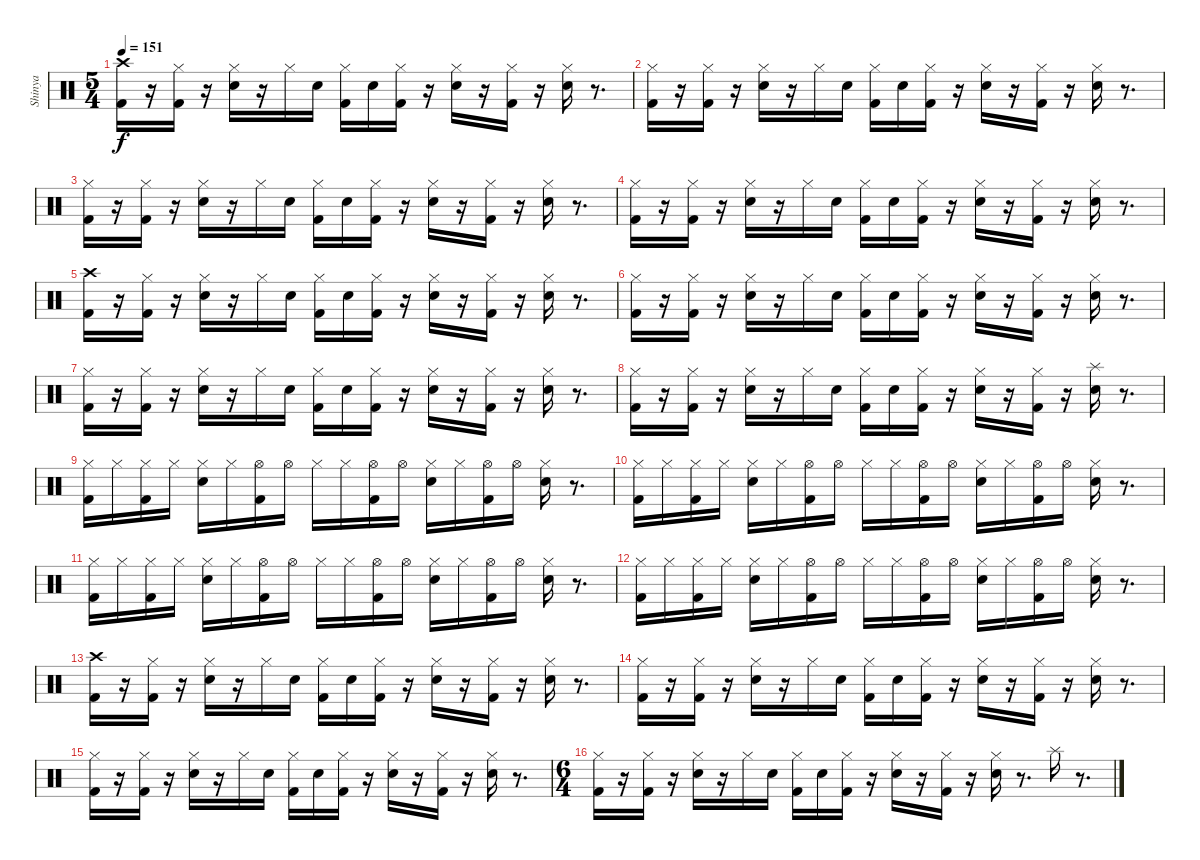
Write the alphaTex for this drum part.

\track ("Shinya" "Shinya") {instrument percussion}
\staff {score}
\articulation defaults
\ts (5 4)
\tempo 151
\clef neutral
\ks c
("Kick (hit) 2" "Crash high (hit)").16{dy f} r.16 ("Kick (hit) 2" "Hi-Hat (closed)").16 r.16 ("Snare (hit) 2" "Hi-Hat (closed)").16 r.16 "Hi-Hat (closed)".16 "Snare (hit) 2".16 ("Hi-Hat (closed)" "Kick (hit) 2").16 "Snare (hit) 2".16 ("Hi-Hat (closed)" "Kick (hit) 2").16 r.16 ("Snare (hit) 2" "Hi-Hat (closed)").16 r.16 ("Kick (hit) 2" "Hi-Hat (closed)").16 r.16 ("Snare (hit) 2" "Hi-Hat (closed)").16 r.8{d} |
("Kick (hit) 2" "Hi-Hat (closed)").16 r.16 ("Kick (hit) 2" "Hi-Hat (closed)").16 r.16 ("Snare (hit) 2" "Hi-Hat (closed)").16 r.16 "Hi-Hat (closed)".16 "Snare (hit) 2".16 ("Hi-Hat (closed)" "Kick (hit) 2").16 "Snare (hit) 2".16 ("Hi-Hat (closed)" "Kick (hit) 2").16 r.16 ("Snare (hit) 2" "Hi-Hat (closed)").16 r.16 ("Kick (hit) 2" "Hi-Hat (closed)").16 r.16 ("Snare (hit) 2" "Hi-Hat (closed)").16 r.8{d} |
("Kick (hit) 2" "Hi-Hat (closed)").16 r.16 ("Kick (hit) 2" "Hi-Hat (closed)").16 r.16 ("Snare (hit) 2" "Hi-Hat (closed)").16 r.16 "Hi-Hat (closed)".16 "Snare (hit) 2".16 ("Hi-Hat (closed)" "Kick (hit) 2").16 "Snare (hit) 2".16 ("Hi-Hat (closed)" "Kick (hit) 2").16 r.16 ("Snare (hit) 2" "Hi-Hat (closed)").16 r.16 ("Kick (hit) 2" "Hi-Hat (closed)").16 r.16 ("Snare (hit) 2" "Hi-Hat (closed)").16 r.8{d} |
("Kick (hit) 2" "Hi-Hat (closed)").16 r.16 ("Kick (hit) 2" "Hi-Hat (closed)").16 r.16 ("Snare (hit) 2" "Hi-Hat (closed)").16 r.16 "Hi-Hat (closed)".16 "Snare (hit) 2".16 ("Hi-Hat (closed)" "Kick (hit) 2").16 "Snare (hit) 2".16 ("Hi-Hat (closed)" "Kick (hit) 2").16 r.16 ("Snare (hit) 2" "Hi-Hat (closed)").16 r.16 ("Kick (hit) 2" "Hi-Hat (closed)").16 r.16 ("Snare (hit) 2" "Hi-Hat (closed)").16 r.8{d} |
("Kick (hit) 2" "Crash high (hit)").16 r.16 ("Kick (hit) 2" "Hi-Hat (closed)").16 r.16 ("Snare (hit) 2" "Hi-Hat (closed)").16 r.16 "Hi-Hat (closed)".16 "Snare (hit) 2".16 ("Hi-Hat (closed)" "Kick (hit) 2").16 "Snare (hit) 2".16 ("Hi-Hat (closed)" "Kick (hit) 2").16 r.16 ("Snare (hit) 2" "Hi-Hat (closed)").16 r.16 ("Kick (hit) 2" "Hi-Hat (closed)").16 r.16 ("Snare (hit) 2" "Hi-Hat (closed)").16 r.8{d} |
("Kick (hit) 2" "Hi-Hat (closed)").16 r.16 ("Kick (hit) 2" "Hi-Hat (closed)").16 r.16 ("Snare (hit) 2" "Hi-Hat (closed)").16 r.16 "Hi-Hat (closed)".16 "Snare (hit) 2".16 ("Hi-Hat (closed)" "Kick (hit) 2").16 "Snare (hit) 2".16 ("Hi-Hat (closed)" "Kick (hit) 2").16 r.16 ("Snare (hit) 2" "Hi-Hat (closed)").16 r.16 ("Kick (hit) 2" "Hi-Hat (closed)").16 r.16 ("Snare (hit) 2" "Hi-Hat (closed)").16 r.8{d} |
("Kick (hit) 2" "Hi-Hat (closed)").16 r.16 ("Kick (hit) 2" "Hi-Hat (closed)").16 r.16 ("Snare (hit) 2" "Hi-Hat (closed)").16 r.16 "Hi-Hat (closed)".16 "Snare (hit) 2".16 ("Hi-Hat (closed)" "Kick (hit) 2").16 "Snare (hit) 2".16 ("Hi-Hat (closed)" "Kick (hit) 2").16 r.16 ("Snare (hit) 2" "Hi-Hat (closed)").16 r.16 ("Kick (hit) 2" "Hi-Hat (closed)").16 r.16 ("Snare (hit) 2" "Hi-Hat (closed)").16 r.8{d} |
("Kick (hit) 2" "Hi-Hat (closed)").16 r.16 ("Kick (hit) 2" "Hi-Hat (closed)").16 r.16 ("Snare (hit) 2" "Hi-Hat (closed)").16 r.16 "Hi-Hat (closed)".16 "Snare (hit) 2".16 ("Hi-Hat (closed)" "Kick (hit) 2").16 "Snare (hit) 2".16 ("Hi-Hat (closed)" "Kick (hit) 2").16 r.16 ("Snare (hit) 2" "Hi-Hat (closed)").16 r.16 ("Kick (hit) 2" "Hi-Hat (closed)").16 r.16 ("Splash (hit)" "Snare (hit) 2").16 r.8{d} |
("Hi-Hat (closed)" "Kick (hit) 2").16 "Hi-Hat (closed)".16 ("Hi-Hat (closed)" "Kick (hit) 2").16 "Hi-Hat (closed)".16 ("Snare (hit) 2" "Hi-Hat (closed)").16 "Hi-Hat (closed)".16 ("Hi-Hat (open)" "Kick (hit) 2").16 "Hi-Hat (open)".16 "Hi-Hat (closed)".16 "Hi-Hat (closed)".16 ("Hi-Hat (open)" "Kick (hit) 2").16 "Hi-Hat (open)".16 ("Snare (hit) 2" "Hi-Hat (closed)").16 "Hi-Hat (closed)".16 ("Hi-Hat (open)" "Kick (hit) 2").16 "Hi-Hat (open)".16 ("Snare (hit) 2" "Hi-Hat (closed)").16 r.8{d} |
("Hi-Hat (closed)" "Kick (hit) 2").16 "Hi-Hat (closed)".16 ("Hi-Hat (closed)" "Kick (hit) 2").16 "Hi-Hat (closed)".16 ("Snare (hit) 2" "Hi-Hat (closed)").16 "Hi-Hat (closed)".16 ("Hi-Hat (open)" "Kick (hit) 2").16 "Hi-Hat (open)".16 "Hi-Hat (closed)".16 "Hi-Hat (closed)".16 ("Hi-Hat (open)" "Kick (hit) 2").16 "Hi-Hat (open)".16 ("Snare (hit) 2" "Hi-Hat (closed)").16 "Hi-Hat (closed)".16 ("Hi-Hat (open)" "Kick (hit) 2").16 "Hi-Hat (open)".16 ("Snare (hit) 2" "Hi-Hat (closed)").16 r.8{d} |
("Hi-Hat (closed)" "Kick (hit) 2").16 "Hi-Hat (closed)".16 ("Hi-Hat (closed)" "Kick (hit) 2").16 "Hi-Hat (closed)".16 ("Snare (hit) 2" "Hi-Hat (closed)").16 "Hi-Hat (closed)".16 ("Hi-Hat (open)" "Kick (hit) 2").16 "Hi-Hat (open)".16 "Hi-Hat (closed)".16 "Hi-Hat (closed)".16 ("Hi-Hat (open)" "Kick (hit) 2").16 "Hi-Hat (open)".16 ("Snare (hit) 2" "Hi-Hat (closed)").16 "Hi-Hat (closed)".16 ("Hi-Hat (open)" "Kick (hit) 2").16 "Hi-Hat (open)".16 ("Snare (hit) 2" "Hi-Hat (closed)").16 r.8{d} |
("Hi-Hat (closed)" "Kick (hit) 2").16 "Hi-Hat (closed)".16 ("Hi-Hat (closed)" "Kick (hit) 2").16 "Hi-Hat (closed)".16 ("Snare (hit) 2" "Hi-Hat (closed)").16 "Hi-Hat (closed)".16 ("Hi-Hat (open)" "Kick (hit) 2").16 "Hi-Hat (open)".16 "Hi-Hat (closed)".16 "Hi-Hat (closed)".16 ("Hi-Hat (open)" "Kick (hit) 2").16 "Hi-Hat (open)".16 ("Snare (hit) 2" "Hi-Hat (closed)").16 "Hi-Hat (closed)".16 ("Hi-Hat (open)" "Kick (hit) 2").16 "Hi-Hat (open)".16 ("Snare (hit) 2" "Hi-Hat (closed)").16 r.8{d} |
("Kick (hit) 2" "Crash high (hit)").16 r.16 ("Kick (hit) 2" "Hi-Hat (closed)").16 r.16 ("Snare (hit) 2" "Hi-Hat (closed)").16 r.16 "Hi-Hat (closed)".16 "Snare (hit) 2".16 ("Hi-Hat (closed)" "Kick (hit) 2").16 "Snare (hit) 2".16 ("Hi-Hat (closed)" "Kick (hit) 2").16 r.16 ("Snare (hit) 2" "Hi-Hat (closed)").16 r.16 ("Kick (hit) 2" "Hi-Hat (closed)").16 r.16 ("Snare (hit) 2" "Hi-Hat (closed)").16 r.8{d} |
("Kick (hit) 2" "Hi-Hat (closed)").16 r.16 ("Kick (hit) 2" "Hi-Hat (closed)").16 r.16 ("Snare (hit) 2" "Hi-Hat (closed)").16 r.16 "Hi-Hat (closed)".16 "Snare (hit) 2".16 ("Hi-Hat (closed)" "Kick (hit) 2").16 "Snare (hit) 2".16 ("Hi-Hat (closed)" "Kick (hit) 2").16 r.16 ("Snare (hit) 2" "Hi-Hat (closed)").16 r.16 ("Kick (hit) 2" "Hi-Hat (closed)").16 r.16 ("Snare (hit) 2" "Hi-Hat (closed)").16 r.8{d} |
("Kick (hit) 2" "Hi-Hat (closed)").16 r.16 ("Kick (hit) 2" "Hi-Hat (closed)").16 r.16 ("Snare (hit) 2" "Hi-Hat (closed)").16 r.16 "Hi-Hat (closed)".16 "Snare (hit) 2".16 ("Hi-Hat (closed)" "Kick (hit) 2").16 "Snare (hit) 2".16 ("Hi-Hat (closed)" "Kick (hit) 2").16 r.16 ("Snare (hit) 2" "Hi-Hat (closed)").16 r.16 ("Kick (hit) 2" "Hi-Hat (closed)").16 r.16 ("Snare (hit) 2" "Hi-Hat (closed)").16 r.8{d} |
\ts (6 4)
("Kick (hit) 2" "Hi-Hat (closed)").16 r.16 ("Kick (hit) 2" "Hi-Hat (closed)").16 r.16 ("Snare (hit) 2" "Hi-Hat (closed)").16 r.16 "Hi-Hat (closed)".16 "Snare (hit) 2".16 ("Hi-Hat (closed)" "Kick (hit) 2").16 "Snare (hit) 2".16 ("Hi-Hat (closed)" "Kick (hit) 2").16 r.16 ("Snare (hit) 2" "Hi-Hat (closed)").16 r.16 ("Kick (hit) 2" "Hi-Hat (closed)").16 r.16 ("Snare (hit) 2" "Hi-Hat (closed)").16 r.8{d} "Splash (hit)".16 r.8{d}
